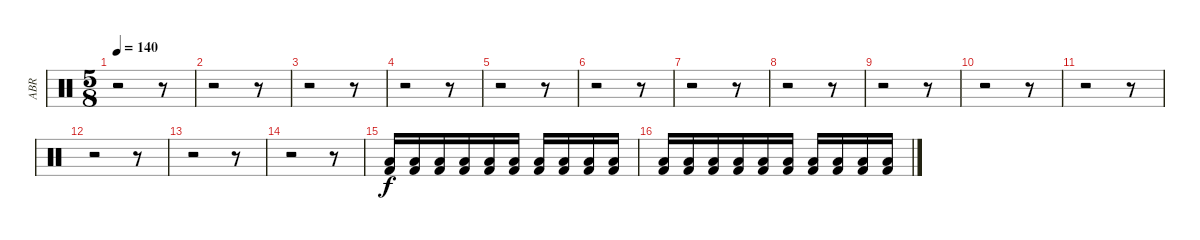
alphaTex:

\track ("ABR" "ABR") {instrument percussion}
\staff {score}
\articulation defaults
\ts (5 8)
\tempo 140
\clef neutral
\ks c
r.2{dy f} r.8 |
r.2 r.8 |
r.2 r.8 |
r.2 r.8 |
r.2 r.8 |
r.2 r.8 |
r.2 r.8 |
r.2 r.8 |
r.2 r.8 |
r.2 r.8 |
r.2 r.8 |
r.2 r.8 |
r.2 r.8 |
r.2 r.8 |
("Low Floor Tom (hit)" "Kick (hit) 2").16{volume 4 balance 16} ("Low Floor Tom (hit)" "Kick (hit) 2").16{volume 11} ("Low Floor Tom (hit)" "Kick (hit) 2").16 ("Low Floor Tom (hit)" "Kick (hit) 2").16 ("Low Floor Tom (hit)" "Kick (hit) 2").16 ("Low Floor Tom (hit)" "Kick (hit) 2").16 ("Low Floor Tom (hit)" "Kick (hit) 2").16 ("Low Floor Tom (hit)" "Kick (hit) 2").16 ("Low Floor Tom (hit)" "Kick (hit) 2").16 ("Low Floor Tom (hit)" "Kick (hit) 2").16 |
("Low Floor Tom (hit)" "Kick (hit) 2").16 ("Low Floor Tom (hit)" "Kick (hit) 2").16 ("Low Floor Tom (hit)" "Kick (hit) 2").16 ("Low Floor Tom (hit)" "Kick (hit) 2").16 ("Low Floor Tom (hit)" "Kick (hit) 2").16 ("Low Floor Tom (hit)" "Kick (hit) 2").16 ("Low Floor Tom (hit)" "Kick (hit) 2").16{volume 8} ("Low Floor Tom (hit)" "Kick (hit) 2").16 ("Low Floor Tom (hit)" "Kick (hit) 2").16 ("Low Floor Tom (hit)" "Kick (hit) 2").16
